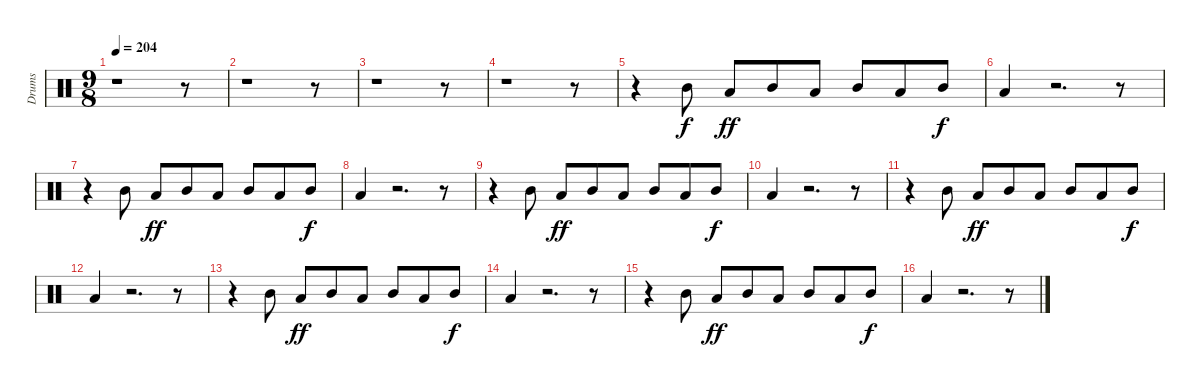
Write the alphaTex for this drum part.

\track ("Drums" "Drums") {instrument percussion}
\staff {score}
\articulation defaults
\ts (9 8)
\tempo 204
\clef neutral
\ks c
r.1{dy f} r.8 |
r.1 r.8 |
r.1 r.8 |
r.1 r.8 |
r.4 "Mid Tom (hit)".8 "Low Tom (hit)".8{dy ff} "Mid Tom (hit)".8 "Low Tom (hit)".8 "Mid Tom (hit)".8 "Low Tom (hit)".8 "Mid Tom (hit)".8{dy f} |
"Low Tom (hit)".4 r.2{d} r.8 |
r.4 "Mid Tom (hit)".8 "Low Tom (hit)".8{dy ff} "Mid Tom (hit)".8 "Low Tom (hit)".8 "Mid Tom (hit)".8 "Low Tom (hit)".8 "Mid Tom (hit)".8{dy f} |
"Low Tom (hit)".4 r.2{d} r.8 |
r.4 "Mid Tom (hit)".8 "Low Tom (hit)".8{dy ff} "Mid Tom (hit)".8 "Low Tom (hit)".8 "Mid Tom (hit)".8 "Low Tom (hit)".8 "Mid Tom (hit)".8{dy f} |
"Low Tom (hit)".4 r.2{d} r.8 |
r.4 "Mid Tom (hit)".8 "Low Tom (hit)".8{dy ff} "Mid Tom (hit)".8 "Low Tom (hit)".8 "Mid Tom (hit)".8 "Low Tom (hit)".8 "Mid Tom (hit)".8{dy f} |
"Low Tom (hit)".4 r.2{d} r.8 |
r.4 "Mid Tom (hit)".8 "Low Tom (hit)".8{dy ff} "Mid Tom (hit)".8 "Low Tom (hit)".8 "Mid Tom (hit)".8 "Low Tom (hit)".8 "Mid Tom (hit)".8{dy f} |
"Low Tom (hit)".4 r.2{d} r.8 |
r.4 "Mid Tom (hit)".8 "Low Tom (hit)".8{dy ff} "Mid Tom (hit)".8 "Low Tom (hit)".8 "Mid Tom (hit)".8 "Low Tom (hit)".8 "Mid Tom (hit)".8{dy f} |
"Low Tom (hit)".4 r.2{d} r.8
